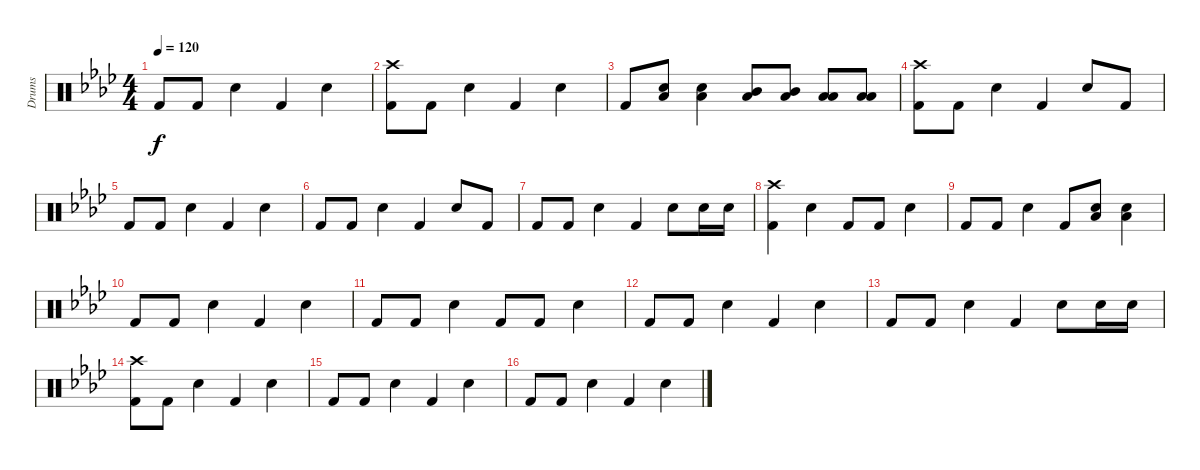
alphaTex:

\track ("Drums" "Drums") {instrument percussion}
\staff {score}
\articulation defaults
\ts (4 4)
\tempo 120
\clef neutral
\ks ab "Kick (hit) 2".8{dy f} "Kick (hit) 2".8 "Electric Snare (hit)".4 "Kick (hit) 2".4 "Electric Snare (hit)".4
|
("Crash high (hit)" "Kick (hit) 2").8 "Kick (hit) 2".8 "Electric Snare (hit)".4 "Kick (hit) 2".4 "Electric Snare (hit)".4 |
"Kick (hit) 2".8 ("Low Tom (hit)" "Electric Snare (hit)").8 ("Low Tom (hit)" "Electric Snare (hit)").4 ("Low Tom (hit)" "Mid Tom (hit)").8 ("Low Tom (hit)" "Mid Tom (hit)").8 ("Low Tom (hit)" "Low Floor Tom (hit)").8 ("Low Tom (hit)" "Low Floor Tom (hit)").8 |
("Crash high (hit)" "Kick (hit) 2").8 "Kick (hit) 2".8 "Electric Snare (hit)".4 "Kick (hit) 2".4 "Electric Snare (hit)".8 "Kick (hit) 2".8 |
"Kick (hit) 2".8 "Kick (hit) 2".8 "Electric Snare (hit)".4 "Kick (hit) 2".4 "Electric Snare (hit)".4 |
"Kick (hit) 2".8 "Kick (hit) 2".8 "Electric Snare (hit)".4 "Kick (hit) 2".4 "Electric Snare (hit)".8 "Kick (hit) 2".8 |
"Kick (hit) 2".8 "Kick (hit) 2".8 "Electric Snare (hit)".4 "Kick (hit) 2".4 "Electric Snare (hit)".8 "Electric Snare (hit)".16 "Electric Snare (hit)".16 |
("Crash high (hit)" "Kick (hit) 2").4 "Electric Snare (hit)".4 "Kick (hit) 2".8 "Kick (hit) 2".8 "Electric Snare (hit)".4 |
"Kick (hit) 2".8 "Kick (hit) 2".8 "Electric Snare (hit)".4 "Kick (hit) 2".8 ("Low Tom (hit)" "Electric Snare (hit)").8 ("Low Tom (hit)" "Electric Snare (hit)").4 |
"Kick (hit) 2".8 "Kick (hit) 2".8 "Electric Snare (hit)".4 "Kick (hit) 2".4 "Electric Snare (hit)".4 |
"Kick (hit) 2".8 "Kick (hit) 2".8 "Electric Snare (hit)".4 "Kick (hit) 2".8 "Kick (hit) 2".8 "Electric Snare (hit)".4 |
"Kick (hit) 2".8 "Kick (hit) 2".8 "Electric Snare (hit)".4 "Kick (hit) 2".4 "Electric Snare (hit)".4 |
"Kick (hit) 2".8 "Kick (hit) 2".8 "Electric Snare (hit)".4 "Kick (hit) 2".4 "Electric Snare (hit)".8 "Electric Snare (hit)".16 "Electric Snare (hit)".16 |
("Crash high (hit)" "Kick (hit) 2").8 "Kick (hit) 2".8 "Electric Snare (hit)".4 "Kick (hit) 2".4 "Electric Snare (hit)".4 |
"Kick (hit) 2".8 "Kick (hit) 2".8 "Electric Snare (hit)".4 "Kick (hit) 2".4 "Electric Snare (hit)".4 |
"Kick (hit) 2".8 "Kick (hit) 2".8 "Electric Snare (hit)".4 "Kick (hit) 2".4 "Electric Snare (hit)".4
